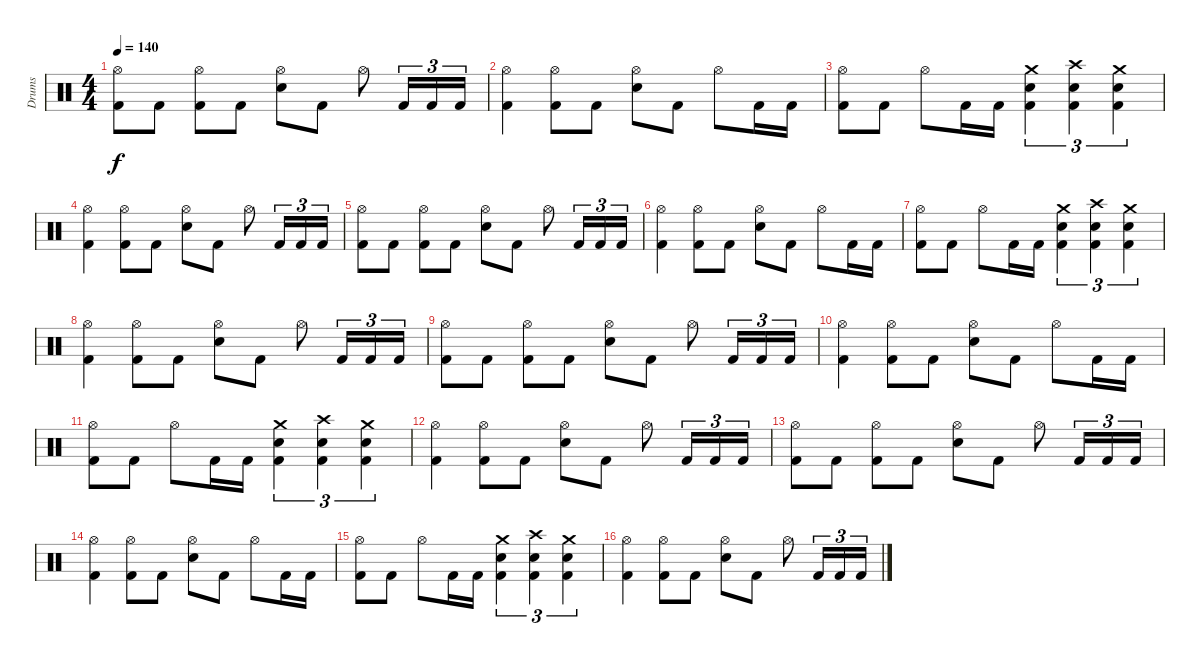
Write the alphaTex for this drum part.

\track ("Drums" "Drums") {instrument percussion}
\staff {score}
\articulation defaults
\ts (4 4)
\tempo 140
\clef neutral
\ks c
("Kick (hit) 2" "Hi-Hat (open)").8{dy f} "Kick (hit) 2".8 ("Kick (hit) 2" "Hi-Hat (open)").8 "Kick (hit) 2".8 ("Electric Snare (hit)" "Hi-Hat (open)").8 "Kick (hit) 2".8 "Hi-Hat (open)".8 "Kick (hit) 2".16{tu (3 2)} "Kick (hit) 2".16{tu (3 2)} "Kick (hit) 2".16{tu (3 2)} |
("Hi-Hat (open)" "Kick (hit) 2").4 ("Kick (hit) 2" "Hi-Hat (open)").8 "Kick (hit) 2".8 ("Hi-Hat (open)" "Electric Snare (hit)").8 "Kick (hit) 2".8 "Hi-Hat (open)".8 "Kick (hit) 2".16 "Kick (hit) 2".16 |
("Hi-Hat (open)" "Kick (hit) 2").8 "Kick (hit) 2".8 "Hi-Hat (open)".8 "Kick (hit) 2".16 "Kick (hit) 2".16 ("Electric Snare (hit)" "Kick (hit) 2" "Crash medium (hit)").4{tu (3 2)} ("Electric Snare (hit)" "Kick (hit) 2" "Crash high (hit)").4{tu (3 2)} ("Electric Snare (hit)" "Kick (hit) 2" "Crash medium (hit)").4{tu (3 2)} |
("Hi-Hat (open)" "Kick (hit) 2").4 ("Hi-Hat (open)" "Kick (hit) 2").8 "Kick (hit) 2".8 ("Hi-Hat (open)" "Electric Snare (hit)").8 "Kick (hit) 2".8 "Hi-Hat (open)".8 "Kick (hit) 2".16{tu (3 2)} "Kick (hit) 2".16{tu (3 2)} "Kick (hit) 2".16{tu (3 2)} |
("Kick (hit) 2" "Hi-Hat (open)").8 "Kick (hit) 2".8 ("Kick (hit) 2" "Hi-Hat (open)").8 "Kick (hit) 2".8 ("Electric Snare (hit)" "Hi-Hat (open)").8 "Kick (hit) 2".8 "Hi-Hat (open)".8 "Kick (hit) 2".16{tu (3 2)} "Kick (hit) 2".16{tu (3 2)} "Kick (hit) 2".16{tu (3 2)} |
("Hi-Hat (open)" "Kick (hit) 2").4 ("Kick (hit) 2" "Hi-Hat (open)").8 "Kick (hit) 2".8 ("Hi-Hat (open)" "Electric Snare (hit)").8 "Kick (hit) 2".8 "Hi-Hat (open)".8 "Kick (hit) 2".16 "Kick (hit) 2".16 |
("Hi-Hat (open)" "Kick (hit) 2").8 "Kick (hit) 2".8 "Hi-Hat (open)".8 "Kick (hit) 2".16 "Kick (hit) 2".16 ("Electric Snare (hit)" "Kick (hit) 2" "Crash medium (hit)").4{tu (3 2)} ("Electric Snare (hit)" "Kick (hit) 2" "Crash high (hit)").4{tu (3 2)} ("Electric Snare (hit)" "Kick (hit) 2" "Crash medium (hit)").4{tu (3 2)} |
("Hi-Hat (open)" "Kick (hit) 2").4 ("Hi-Hat (open)" "Kick (hit) 2").8 "Kick (hit) 2".8 ("Hi-Hat (open)" "Electric Snare (hit)").8 "Kick (hit) 2".8 "Hi-Hat (open)".8 "Kick (hit) 2".16{tu (3 2)} "Kick (hit) 2".16{tu (3 2)} "Kick (hit) 2".16{tu (3 2)} |
("Kick (hit) 2" "Hi-Hat (open)").8 "Kick (hit) 2".8 ("Kick (hit) 2" "Hi-Hat (open)").8 "Kick (hit) 2".8 ("Electric Snare (hit)" "Hi-Hat (open)").8 "Kick (hit) 2".8 "Hi-Hat (open)".8 "Kick (hit) 2".16{tu (3 2)} "Kick (hit) 2".16{tu (3 2)} "Kick (hit) 2".16{tu (3 2)} |
("Hi-Hat (open)" "Kick (hit) 2").4 ("Kick (hit) 2" "Hi-Hat (open)").8 "Kick (hit) 2".8 ("Hi-Hat (open)" "Electric Snare (hit)").8 "Kick (hit) 2".8 "Hi-Hat (open)".8 "Kick (hit) 2".16 "Kick (hit) 2".16 |
("Hi-Hat (open)" "Kick (hit) 2").8 "Kick (hit) 2".8 "Hi-Hat (open)".8 "Kick (hit) 2".16 "Kick (hit) 2".16 ("Electric Snare (hit)" "Kick (hit) 2" "Crash medium (hit)").4{tu (3 2)} ("Electric Snare (hit)" "Kick (hit) 2" "Crash high (hit)").4{tu (3 2)} ("Electric Snare (hit)" "Kick (hit) 2" "Crash medium (hit)").4{tu (3 2)} |
("Hi-Hat (open)" "Kick (hit) 2").4 ("Hi-Hat (open)" "Kick (hit) 2").8 "Kick (hit) 2".8 ("Hi-Hat (open)" "Electric Snare (hit)").8 "Kick (hit) 2".8 "Hi-Hat (open)".8 "Kick (hit) 2".16{tu (3 2)} "Kick (hit) 2".16{tu (3 2)} "Kick (hit) 2".16{tu (3 2)} |
("Kick (hit) 2" "Hi-Hat (open)").8 "Kick (hit) 2".8 ("Kick (hit) 2" "Hi-Hat (open)").8 "Kick (hit) 2".8 ("Electric Snare (hit)" "Hi-Hat (open)").8 "Kick (hit) 2".8 "Hi-Hat (open)".8 "Kick (hit) 2".16{tu (3 2)} "Kick (hit) 2".16{tu (3 2)} "Kick (hit) 2".16{tu (3 2)} |
("Hi-Hat (open)" "Kick (hit) 2").4 ("Kick (hit) 2" "Hi-Hat (open)").8 "Kick (hit) 2".8 ("Hi-Hat (open)" "Electric Snare (hit)").8 "Kick (hit) 2".8 "Hi-Hat (open)".8 "Kick (hit) 2".16 "Kick (hit) 2".16 |
("Hi-Hat (open)" "Kick (hit) 2").8 "Kick (hit) 2".8 "Hi-Hat (open)".8 "Kick (hit) 2".16 "Kick (hit) 2".16 ("Electric Snare (hit)" "Kick (hit) 2" "Crash medium (hit)").4{tu (3 2)} ("Electric Snare (hit)" "Kick (hit) 2" "Crash high (hit)").4{tu (3 2)} ("Electric Snare (hit)" "Kick (hit) 2" "Crash medium (hit)").4{tu (3 2)} |
("Hi-Hat (open)" "Kick (hit) 2").4 ("Hi-Hat (open)" "Kick (hit) 2").8 "Kick (hit) 2".8 ("Hi-Hat (open)" "Electric Snare (hit)").8 "Kick (hit) 2".8 "Hi-Hat (open)".8 "Kick (hit) 2".16{tu (3 2)} "Kick (hit) 2".16{tu (3 2)} "Kick (hit) 2".16{tu (3 2)}
